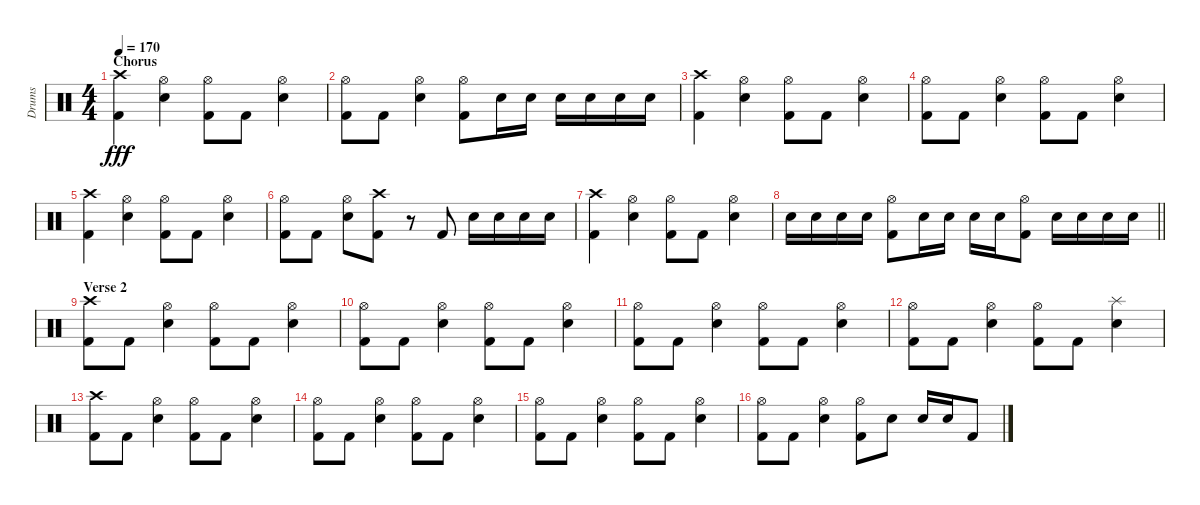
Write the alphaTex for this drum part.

\track ("Drums" "Drums") {instrument percussion}
\staff {score}
\articulation defaults
\ts (4 4)
\section ("" "Chorus")
\tempo 170
\clef neutral
\ks c
("Crash high (hit)" "Kick (hit) 2").4{dy fff} ("Hi-Hat (open)" "Snare (hit) 2").4 ("Hi-Hat (open)" "Kick (hit) 2").8 "Kick (hit) 2".8 ("Hi-Hat (open)" "Snare (hit) 2").4 |
("Hi-Hat (open)" "Kick (hit) 2").8 "Kick (hit) 2".8 ("Hi-Hat (open)" "Snare (hit) 2").4 ("Hi-Hat (open)" "Kick (hit) 2").8 "Snare (hit) 2".16 "Snare (hit) 2".16 "Snare (hit) 2".16 "Snare (hit) 2".16 "Snare (hit) 2".16 "Snare (hit) 2".16 |
("Crash high (hit)" "Kick (hit) 2").4 ("Hi-Hat (open)" "Snare (hit) 2").4 ("Hi-Hat (open)" "Kick (hit) 2").8 "Kick (hit) 2".8 ("Hi-Hat (open)" "Snare (hit) 2").4 |
("Hi-Hat (open)" "Kick (hit) 2").8 "Kick (hit) 2".8 ("Hi-Hat (open)" "Snare (hit) 2").4 ("Hi-Hat (open)" "Kick (hit) 2").8 "Kick (hit) 2".8 ("Hi-Hat (open)" "Snare (hit) 2").4 |
("Crash high (hit)" "Kick (hit) 2").4 ("Hi-Hat (open)" "Snare (hit) 2").4 ("Hi-Hat (open)" "Kick (hit) 2").8 "Kick (hit) 2".8 ("Hi-Hat (open)" "Snare (hit) 2").4 |
("Hi-Hat (open)" "Kick (hit) 2").8 "Kick (hit) 2".8 ("Hi-Hat (open)" "Snare (hit) 2").8 ("Crash high (hit)" "Kick (hit) 2").8 r.8 "Kick (hit) 2".8 "Snare (hit) 2".16 "Snare (hit) 2".16 "Snare (hit) 2".16 "Snare (hit) 2".16 |
("Crash high (hit)" "Kick (hit) 2").4 ("Hi-Hat (open)" "Snare (hit) 2").4 ("Hi-Hat (open)" "Kick (hit) 2").8 "Kick (hit) 2".8 ("Hi-Hat (open)" "Snare (hit) 2").4 |
\barLineRight lightlight "Snare (hit) 2".16 "Snare (hit) 2".16 "Snare (hit) 2".16 "Snare (hit) 2".16
("Hi-Hat (open)" "Kick (hit) 2").8 "Snare (hit) 2".16 "Snare (hit) 2".16 "Snare (hit) 2".16 "Snare (hit) 2".16 ("Hi-Hat (open)" "Kick (hit) 2").8 "Snare (hit) 2".16 "Snare (hit) 2".16 "Snare (hit) 2".16 "Snare (hit) 2".16 |
\section ("" "Verse 2")
("Crash high (hit)" "Kick (hit) 2").8 "Kick (hit) 2".8 ("Hi-Hat (open)" "Snare (hit) 2").4 ("Hi-Hat (open)" "Kick (hit) 2").8 "Kick (hit) 2".8 ("Hi-Hat (open)" "Snare (hit) 2").4 |
("Hi-Hat (open)" "Kick (hit) 2").8 "Kick (hit) 2".8 ("Hi-Hat (open)" "Snare (hit) 2").4 ("Hi-Hat (open)" "Kick (hit) 2").8 "Kick (hit) 2".8 ("Hi-Hat (open)" "Snare (hit) 2").4 |
("Hi-Hat (open)" "Kick (hit) 2").8 "Kick (hit) 2".8 ("Hi-Hat (open)" "Snare (hit) 2").4 ("Hi-Hat (open)" "Kick (hit) 2").8 "Kick (hit) 2".8 ("Hi-Hat (open)" "Snare (hit) 2").4 |
("Hi-Hat (open)" "Kick (hit) 2").8 "Kick (hit) 2".8 ("Hi-Hat (open)" "Snare (hit) 2").4 ("Hi-Hat (open)" "Kick (hit) 2").8 "Kick (hit) 2".8 ("Splash (hit)" "Snare (hit) 2").4 |
("Crash high (hit)" "Kick (hit) 2").8 "Kick (hit) 2".8 ("Hi-Hat (open)" "Snare (hit) 2").4 ("Hi-Hat (open)" "Kick (hit) 2").8 "Kick (hit) 2".8 ("Hi-Hat (open)" "Snare (hit) 2").4 |
("Hi-Hat (open)" "Kick (hit) 2").8 "Kick (hit) 2".8 ("Hi-Hat (open)" "Snare (hit) 2").4 ("Hi-Hat (open)" "Kick (hit) 2").8 "Kick (hit) 2".8 ("Hi-Hat (open)" "Snare (hit) 2").4 |
("Hi-Hat (open)" "Kick (hit) 2").8 "Kick (hit) 2".8 ("Hi-Hat (open)" "Snare (hit) 2").4 ("Hi-Hat (open)" "Kick (hit) 2").8 "Kick (hit) 2".8 ("Hi-Hat (open)" "Snare (hit) 2").4 |
("Hi-Hat (open)" "Kick (hit) 2").8 "Kick (hit) 2".8 ("Hi-Hat (open)" "Snare (hit) 2").4 ("Hi-Hat (open)" "Kick (hit) 2").8 "Snare (hit) 2".8 "Snare (hit) 2".16 "Snare (hit) 2".16 "Kick (hit) 2".8
